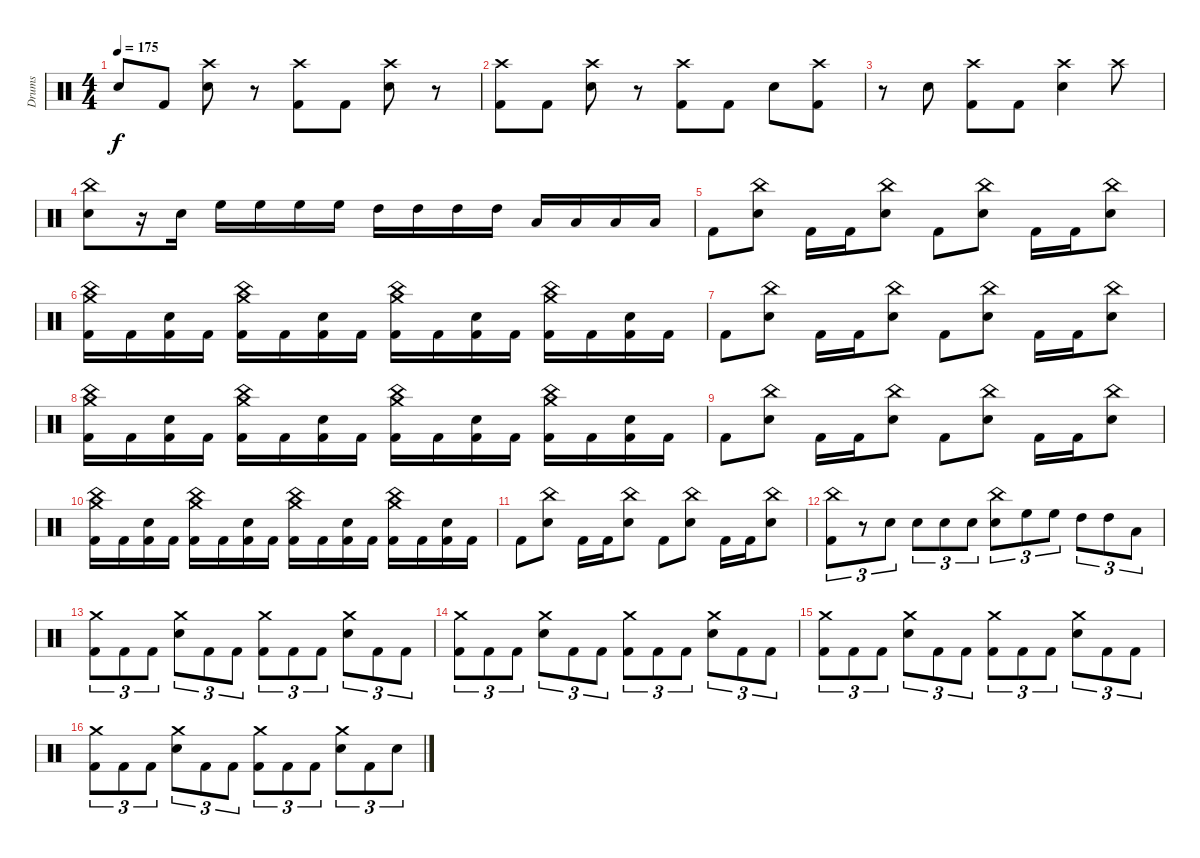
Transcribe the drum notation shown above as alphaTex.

\track ("Drums" "Drums") {instrument percussion}
\staff {score}
\articulation defaults
\ts (4 4)
\tempo 175
\clef neutral
\ks c "Snare (hit)"{t}.8{dy f} "Kick (hit) 2".8
("Crash high (hit)" "Electric Snare (hit)").8 r.8 ("Crash high (hit)" "Kick (hit) 2").8 "Kick (hit) 2".8 ("Crash high (hit)" "Electric Snare (hit)").8 r.8 |
("Crash high (hit)" "Kick (hit) 2").8 "Kick (hit) 2".8 ("Crash high (hit)" "Electric Snare (hit)").8 r.8 ("Crash high (hit)" "Kick (hit) 2").8 "Kick (hit) 2".8 "Electric Snare (hit)".8 ("Crash high (hit)" "Kick (hit) 2").8 |
r.8 "Electric Snare (hit)".8 ("Crash high (hit)" "Kick (hit) 2").8 "Kick (hit) 2".8 ("Crash high (hit)" "Electric Snare (hit)").4 "Crash high (hit)".8 |
("China (hit)" "Electric Snare (hit)").8 r.16 "Electric Snare (hit)".16 "High Floor Tom (hit)".16 "High Floor Tom (hit)".16 "High Floor Tom (hit)".16 "High Floor Tom (hit)".16 "High Tom (hit)".16 "High Tom (hit)".16 "High Tom (hit)".16 "High Tom (hit)".16 "Low Floor Tom (hit)".16 "Low Floor Tom (hit)".16 "Low Floor Tom (hit)".16 "Low Floor Tom (hit)".16 |
"Kick (hit) 2".8 ("China (hit)" "Electric Snare (hit)").8 "Kick (hit) 2".16 "Kick (hit) 2".16 ("China (hit)" "Electric Snare (hit)").8 "Kick (hit) 2".8 ("China (hit)" "Electric Snare (hit)").8 "Kick (hit) 2".16 "Kick (hit) 2".16 ("China (hit)" "Electric Snare (hit)").8 |
("Crash medium (hit)" "China (hit)" "Kick (hit) 2").16 "Kick (hit) 2".16 ("Electric Snare (hit)" "Kick (hit) 2").16 "Kick (hit) 2".16 ("Crash medium (hit)" "China (hit)" "Kick (hit) 2").16 "Kick (hit) 2".16 ("Electric Snare (hit)" "Kick (hit) 2").16 "Kick (hit) 2".16 ("Crash medium (hit)" "China (hit)" "Kick (hit) 2").16 "Kick (hit) 2".16 ("Electric Snare (hit)" "Kick (hit) 2").16 "Kick (hit) 2".16 ("Crash medium (hit)" "China (hit)" "Kick (hit) 2").16 "Kick (hit) 2".16 ("Electric Snare (hit)" "Kick (hit) 2").16 "Kick (hit) 2".16 |
"Kick (hit) 2".8 ("China (hit)" "Electric Snare (hit)").8 "Kick (hit) 2".16 "Kick (hit) 2".16 ("China (hit)" "Electric Snare (hit)").8 "Kick (hit) 2".8 ("China (hit)" "Electric Snare (hit)").8 "Kick (hit) 2".16 "Kick (hit) 2".16 ("China (hit)" "Electric Snare (hit)").8 |
("Crash medium (hit)" "China (hit)" "Kick (hit) 2").16 "Kick (hit) 2".16 ("Electric Snare (hit)" "Kick (hit) 2").16 "Kick (hit) 2".16 ("Crash medium (hit)" "China (hit)" "Kick (hit) 2").16 "Kick (hit) 2".16 ("Electric Snare (hit)" "Kick (hit) 2").16 "Kick (hit) 2".16 ("Crash medium (hit)" "China (hit)" "Kick (hit) 2").16 "Kick (hit) 2".16 ("Electric Snare (hit)" "Kick (hit) 2").16 "Kick (hit) 2".16 ("Crash medium (hit)" "China (hit)" "Kick (hit) 2").16 "Kick (hit) 2".16 ("Electric Snare (hit)" "Kick (hit) 2").16 "Kick (hit) 2".16 |
"Kick (hit) 2".8 ("China (hit)" "Electric Snare (hit)").8 "Kick (hit) 2".16 "Kick (hit) 2".16 ("China (hit)" "Electric Snare (hit)").8 "Kick (hit) 2".8 ("China (hit)" "Electric Snare (hit)").8 "Kick (hit) 2".16 "Kick (hit) 2".16 ("China (hit)" "Electric Snare (hit)").8 |
("Crash medium (hit)" "China (hit)" "Kick (hit) 2").16 "Kick (hit) 2".16 ("Electric Snare (hit)" "Kick (hit) 2").16 "Kick (hit) 2".16 ("Crash medium (hit)" "China (hit)" "Kick (hit) 2").16 "Kick (hit) 2".16 ("Electric Snare (hit)" "Kick (hit) 2").16 "Kick (hit) 2".16 ("Crash medium (hit)" "China (hit)" "Kick (hit) 2").16 "Kick (hit) 2".16 ("Electric Snare (hit)" "Kick (hit) 2").16 "Kick (hit) 2".16 ("Crash medium (hit)" "China (hit)" "Kick (hit) 2").16 "Kick (hit) 2".16 ("Electric Snare (hit)" "Kick (hit) 2").16 "Kick (hit) 2".16 |
"Kick (hit) 2".8 ("China (hit)" "Electric Snare (hit)").8 "Kick (hit) 2".16 "Kick (hit) 2".16 ("China (hit)" "Electric Snare (hit)").8 "Kick (hit) 2".8 ("China (hit)" "Electric Snare (hit)").8 "Kick (hit) 2".16 "Kick (hit) 2".16 ("China (hit)" "Electric Snare (hit)").8 |
("China (hit)" "Kick (hit) 2").8{tu (3 2)} r.8{tu (3 2)} "Electric Snare (hit)".8{tu (3 2)} "Electric Snare (hit)".8{tu (3 2)} "Electric Snare (hit)".8{tu (3 2)} "Electric Snare (hit)".8{tu (3 2)} ("China (hit)" "Electric Snare (hit)").8{tu (3 2)} "High Floor Tom (hit)".8{tu (3 2)} "High Floor Tom (hit)".8{tu (3 2)} "High Tom (hit)".8{tu (3 2)} "High Tom (hit)".8{tu (3 2)} "Low Floor Tom (hit)".8{tu (3 2)} |
("Crash medium (hit)" "Kick (hit) 2").8{tu (3 2)} "Kick (hit) 2".8{tu (3 2)} "Kick (hit) 2".8{tu (3 2)} ("Crash medium (hit)" "Electric Snare (hit)").8{tu (3 2)} "Kick (hit) 2".8{tu (3 2)} "Kick (hit) 2".8{tu (3 2)} ("Crash medium (hit)" "Kick (hit) 2").8{tu (3 2)} "Kick (hit) 2".8{tu (3 2)} "Kick (hit) 2".8{tu (3 2)} ("Crash medium (hit)" "Electric Snare (hit)").8{tu (3 2)} "Kick (hit) 2".8{tu (3 2)} "Kick (hit) 2".8{tu (3 2)} |
("Crash medium (hit)" "Kick (hit) 2").8{tu (3 2)} "Kick (hit) 2".8{tu (3 2)} "Kick (hit) 2".8{tu (3 2)} ("Crash medium (hit)" "Electric Snare (hit)").8{tu (3 2)} "Kick (hit) 2".8{tu (3 2)} "Kick (hit) 2".8{tu (3 2)} ("Crash medium (hit)" "Kick (hit) 2").8{tu (3 2)} "Kick (hit) 2".8{tu (3 2)} "Kick (hit) 2".8{tu (3 2)} ("Crash medium (hit)" "Electric Snare (hit)").8{tu (3 2)} "Kick (hit) 2".8{tu (3 2)} "Kick (hit) 2".8{tu (3 2)} |
("Crash medium (hit)" "Kick (hit) 2").8{tu (3 2)} "Kick (hit) 2".8{tu (3 2)} "Kick (hit) 2".8{tu (3 2)} ("Crash medium (hit)" "Electric Snare (hit)").8{tu (3 2)} "Kick (hit) 2".8{tu (3 2)} "Kick (hit) 2".8{tu (3 2)} ("Crash medium (hit)" "Kick (hit) 2").8{tu (3 2)} "Kick (hit) 2".8{tu (3 2)} "Kick (hit) 2".8{tu (3 2)} ("Crash medium (hit)" "Electric Snare (hit)").8{tu (3 2)} "Kick (hit) 2".8{tu (3 2)} "Kick (hit) 2".8{tu (3 2)} |
("Crash medium (hit)" "Kick (hit) 2").8{tu (3 2)} "Kick (hit) 2".8{tu (3 2)} "Kick (hit) 2".8{tu (3 2)} ("Crash medium (hit)" "Electric Snare (hit)").8{tu (3 2)} "Kick (hit) 2".8{tu (3 2)} "Kick (hit) 2".8{tu (3 2)} ("Crash medium (hit)" "Kick (hit) 2").8{tu (3 2)} "Kick (hit) 2".8{tu (3 2)} "Kick (hit) 2".8{tu (3 2)} ("Crash medium (hit)" "Electric Snare (hit)").8{tu (3 2)} "Kick (hit) 2".8{tu (3 2)} "Electric Snare (hit)".8{tu (3 2)}
